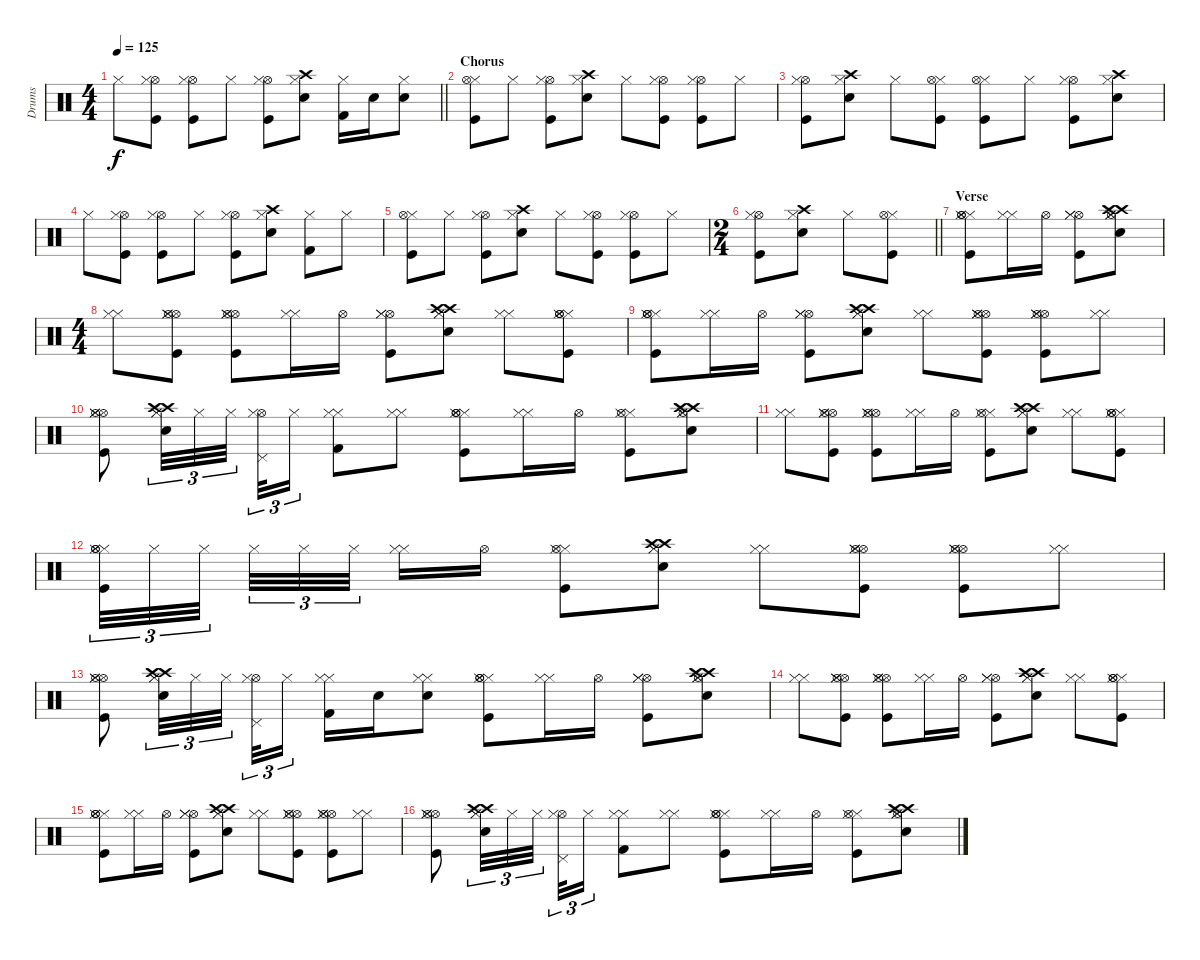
\track ("Drums" "Drums") {instrument percussion}
\staff {score}
\articulation defaults
\ts (4 4)
\tempo 125
\clef neutral
\barLineRight lightlight
\ks c "Hi-Hat (closed)".8{dy f}
("Kick (hit)" "Hi-Hat (open)" "Hi-Hat (closed)").8 ("Hi-Hat (open)" "Kick (hit)" "Hi-Hat (closed)").8 "Hi-Hat (closed)".8 ("Kick (hit)" "Hi-Hat (open)" "Hi-Hat (closed)").8 ("Electric Snare (hit)" "Crash high (hit)" "Hi-Hat (closed)").8 ("Kick (hit) 2" "Hi-Hat (closed)").16 "Electric Snare (hit)".16 ("Electric Snare (hit)" "Hi-Hat (closed)").8 |
\section ("" "Chorus")
("Hi-Hat (closed)" "Hi-Hat (open)" "Kick (hit)").8 "Hi-Hat (closed)".8 ("Hi-Hat (open)" "Kick (hit)" "Hi-Hat (closed)").8 ("Electric Snare (hit)" "Crash high (hit)" "Hi-Hat (closed)").8 "Hi-Hat (closed)".8 ("Kick (hit)" "Hi-Hat (open)" "Hi-Hat (closed)").8 ("Hi-Hat (open)" "Kick (hit)" "Hi-Hat (closed)").8 "Hi-Hat (closed)".8 |
("Hi-Hat (open)" "Kick (hit)" "Hi-Hat (closed)").8 ("Crash high (hit)" "Electric Snare (hit)" "Hi-Hat (closed)").8 "Hi-Hat (closed)".8 ("Kick (hit)" "Hi-Hat (closed)" "Hi-Hat (open)").8 ("Hi-Hat (closed)" "Hi-Hat (open)" "Kick (hit)").8 "Hi-Hat (closed)".8 ("Hi-Hat (open)" "Kick (hit)" "Hi-Hat (closed)").8 ("Crash high (hit)" "Hi-Hat (closed)" "Electric Snare (hit)").8 |
"Hi-Hat (closed)".8 ("Kick (hit)" "Hi-Hat (open)" "Hi-Hat (closed)").8 ("Hi-Hat (open)" "Kick (hit)" "Hi-Hat (closed)").8 "Hi-Hat (closed)".8 ("Kick (hit)" "Hi-Hat (open)" "Hi-Hat (closed)").8 ("Electric Snare (hit)" "Crash high (hit)" "Hi-Hat (closed)").8 ("Kick (hit) 2" "Hi-Hat (closed)").8 "Hi-Hat (closed)".8 |
("Hi-Hat (closed)" "Hi-Hat (open)" "Kick (hit)").8 "Hi-Hat (closed)".8 ("Hi-Hat (open)" "Kick (hit)" "Hi-Hat (closed)").8 ("Electric Snare (hit)" "Crash high (hit)" "Hi-Hat (closed)").8 "Hi-Hat (closed)".8 ("Kick (hit)" "Hi-Hat (open)" "Hi-Hat (closed)").8 ("Hi-Hat (open)" "Kick (hit)" "Hi-Hat (closed)").8 "Hi-Hat (closed)".8 |
\ts (2 4)
\barLineRight lightlight
("Hi-Hat (open)" "Kick (hit)" "Hi-Hat (closed)").8 ("Crash high (hit)" "Electric Snare (hit)" "Hi-Hat (closed)").8 "Hi-Hat (closed)".8 ("Kick (hit)" "Hi-Hat (closed)" "Hi-Hat (open)").8 |
\section ("" "Verse")
("Hi-Hat (closed)" "Hi-Hat (open)" "Kick (hit)" "Hi-Hat (closed)" "Hi-Hat (open)").8 ("Hi-Hat (closed)" "Hi-Hat (closed)").16 "Hi-Hat (open)".16 ("Hi-Hat (open)" "Kick (hit)" "Hi-Hat (closed)" "Hi-Hat (closed)").8 ("Electric Snare (hit)" "Crash high (hit)" "Hi-Hat (closed)" "Crash high (hit)" "Hi-Hat (closed)" "Hi-Hat (open)").8 |
\ts (4 4)
("Hi-Hat (closed)" "Hi-Hat (closed)").8 ("Kick (hit)" "Hi-Hat (open)" "Hi-Hat (closed)" "Hi-Hat (open)" "Hi-Hat (closed)").8 ("Hi-Hat (open)" "Kick (hit)" "Hi-Hat (closed)" "Hi-Hat (open)" "Hi-Hat (closed)").8 ("Hi-Hat (closed)" "Hi-Hat (closed)").16 "Hi-Hat (open)".16 ("Hi-Hat (open)" "Kick (hit)" "Hi-Hat (closed)" "Hi-Hat (closed)").8 ("Crash high (hit)" "Electric Snare (hit)" "Hi-Hat (closed)" "Crash high (hit)" "Hi-Hat (closed)").8 ("Hi-Hat (closed)" "Hi-Hat (closed)").8 ("Kick (hit)" "Hi-Hat (closed)" "Hi-Hat (open)" "Hi-Hat (closed)" "Hi-Hat (open)").8 |
("Hi-Hat (closed)" "Hi-Hat (open)" "Kick (hit)" "Hi-Hat (closed)" "Hi-Hat (open)").8 ("Hi-Hat (closed)" "Hi-Hat (closed)").16 "Hi-Hat (open)".16 ("Hi-Hat (open)" "Kick (hit)" "Hi-Hat (closed)" "Hi-Hat (closed)").8 ("Crash high (hit)" "Hi-Hat (closed)" "Electric Snare (hit)" "Crash high (hit)" "Hi-Hat (closed)").8 ("Hi-Hat (closed)" "Hi-Hat (closed)").8 ("Kick (hit)" "Hi-Hat (open)" "Hi-Hat (closed)" "Hi-Hat (open)" "Hi-Hat (closed)").8 ("Hi-Hat (open)" "Kick (hit)" "Hi-Hat (closed)" "Hi-Hat (open)" "Hi-Hat (closed)").8 ("Hi-Hat (closed)" "Hi-Hat (closed)").8 |
("Kick (hit)" "Hi-Hat (open)" "Hi-Hat (closed)" "Hi-Hat (open)" "Hi-Hat (closed)").8 ("Electric Snare (hit)" "Crash high (hit)" "Hi-Hat (closed)" "Crash high (hit)" "Hi-Hat (closed)").32{tu (3 2)} "Hi-Hat (closed)".32{tu (3 2)} "Hi-Hat (closed)".32{tu (3 2) beam splitsecondary} ("Hi-Hat (open)" "Hi-Hat (closed)" "Pedal Hi-Hat (hit)").32{tu (3 2)} "Hi-Hat (closed)".16{tu (3 2)} ("Kick (hit) 2" "Hi-Hat (closed)" "Hi-Hat (closed)").8 ("Hi-Hat (closed)" "Hi-Hat (closed)").8 ("Hi-Hat (closed)" "Hi-Hat (open)" "Hi-Hat (closed)" "Hi-Hat (open)" "Kick (hit)").8 ("Hi-Hat (closed)" "Hi-Hat (closed)").16 "Hi-Hat (open)".16 ("Hi-Hat (closed)" "Hi-Hat (open)" "Kick (hit)" "Hi-Hat (closed)").8 ("Crash high (hit)" "Hi-Hat (closed)" "Hi-Hat (open)" "Electric Snare (hit)" "Crash high (hit)" "Hi-Hat (closed)").8 |
("Hi-Hat (closed)" "Hi-Hat (closed)").8 ("Hi-Hat (open)" "Hi-Hat (closed)" "Kick (hit)" "Hi-Hat (open)" "Hi-Hat (closed)").8 ("Hi-Hat (open)" "Hi-Hat (closed)" "Hi-Hat (open)" "Kick (hit)" "Hi-Hat (closed)").8 ("Hi-Hat (closed)" "Hi-Hat (closed)").16 "Hi-Hat (open)".16 ("Hi-Hat (closed)" "Hi-Hat (open)" "Kick (hit)" "Hi-Hat (closed)").8 ("Crash high (hit)" "Hi-Hat (closed)" "Crash high (hit)" "Electric Snare (hit)" "Hi-Hat (closed)").8 ("Hi-Hat (closed)" "Hi-Hat (closed)").8 ("Hi-Hat (closed)" "Hi-Hat (open)" "Kick (hit)" "Hi-Hat (closed)" "Hi-Hat (open)").8 |
("Hi-Hat (closed)" "Hi-Hat (open)" "Hi-Hat (closed)" "Hi-Hat (open)" "Kick (hit)").32{tu (3 2)} "Hi-Hat (closed)".32{tu (3 2)} "Hi-Hat (closed)".32{tu (3 2) beam splitsecondary} "Hi-Hat (closed)".32{tu (3 2)} "Hi-Hat (closed)".32{tu (3 2)} "Hi-Hat (closed)".32{tu (3 2) beam splitsecondary} ("Hi-Hat (closed)" "Hi-Hat (closed)").16 "Hi-Hat (open)".16 ("Hi-Hat (closed)" "Hi-Hat (open)" "Kick (hit)" "Hi-Hat (closed)").8 ("Crash high (hit)" "Hi-Hat (closed)" "Crash high (hit)" "Hi-Hat (closed)" "Electric Snare (hit)").8 ("Hi-Hat (closed)" "Hi-Hat (closed)").8 ("Hi-Hat (open)" "Hi-Hat (closed)" "Kick (hit)" "Hi-Hat (open)" "Hi-Hat (closed)").8 ("Hi-Hat (open)" "Hi-Hat (closed)" "Hi-Hat (open)" "Kick (hit)" "Hi-Hat (closed)").8 ("Hi-Hat (closed)" "Hi-Hat (closed)").8 |
("Hi-Hat (open)" "Hi-Hat (closed)" "Kick (hit)" "Hi-Hat (open)" "Hi-Hat (closed)").8 ("Crash high (hit)" "Hi-Hat (closed)" "Electric Snare (hit)" "Crash high (hit)" "Hi-Hat (closed)").32{tu (3 2)} "Hi-Hat (closed)".32{tu (3 2)} "Hi-Hat (closed)".32{tu (3 2) beam splitsecondary} ("Hi-Hat (open)" "Hi-Hat (closed)" "Pedal Hi-Hat (hit)").32{tu (3 2)} "Hi-Hat (closed)".16{tu (3 2)} ("Hi-Hat (closed)" "Kick (hit) 2" "Hi-Hat (closed)").16 "Electric Snare (hit)".16 ("Hi-Hat (closed)" "Electric Snare (hit)" "Hi-Hat (closed)").8 ("Hi-Hat (closed)" "Hi-Hat (open)" "Kick (hit)" "Hi-Hat (closed)" "Hi-Hat (open)").8 ("Hi-Hat (closed)" "Hi-Hat (closed)").16 "Hi-Hat (open)".16 ("Hi-Hat (open)" "Kick (hit)" "Hi-Hat (closed)" "Hi-Hat (closed)").8 ("Electric Snare (hit)" "Crash high (hit)" "Hi-Hat (closed)" "Crash high (hit)" "Hi-Hat (closed)" "Hi-Hat (open)").8 |
("Hi-Hat (closed)" "Hi-Hat (closed)").8 ("Kick (hit)" "Hi-Hat (open)" "Hi-Hat (closed)" "Hi-Hat (open)" "Hi-Hat (closed)").8 ("Hi-Hat (open)" "Kick (hit)" "Hi-Hat (closed)" "Hi-Hat (open)" "Hi-Hat (closed)").8 ("Hi-Hat (closed)" "Hi-Hat (closed)").16 "Hi-Hat (open)".16 ("Hi-Hat (open)" "Kick (hit)" "Hi-Hat (closed)" "Hi-Hat (closed)").8 ("Crash high (hit)" "Electric Snare (hit)" "Hi-Hat (closed)" "Crash high (hit)" "Hi-Hat (closed)").8 ("Hi-Hat (closed)" "Hi-Hat (closed)").8 ("Kick (hit)" "Hi-Hat (closed)" "Hi-Hat (open)" "Hi-Hat (closed)" "Hi-Hat (open)").8 |
("Hi-Hat (closed)" "Hi-Hat (open)" "Kick (hit)" "Hi-Hat (closed)" "Hi-Hat (open)").8 ("Hi-Hat (closed)" "Hi-Hat (closed)").16 "Hi-Hat (open)".16 ("Hi-Hat (open)" "Kick (hit)" "Hi-Hat (closed)" "Hi-Hat (closed)").8 ("Crash high (hit)" "Hi-Hat (closed)" "Electric Snare (hit)" "Crash high (hit)" "Hi-Hat (closed)").8 ("Hi-Hat (closed)" "Hi-Hat (closed)").8 ("Kick (hit)" "Hi-Hat (open)" "Hi-Hat (closed)" "Hi-Hat (open)" "Hi-Hat (closed)").8 ("Hi-Hat (open)" "Kick (hit)" "Hi-Hat (closed)" "Hi-Hat (open)" "Hi-Hat (closed)").8 ("Hi-Hat (closed)" "Hi-Hat (closed)").8 |
("Kick (hit)" "Hi-Hat (open)" "Hi-Hat (closed)" "Hi-Hat (open)" "Hi-Hat (closed)").8 ("Electric Snare (hit)" "Crash high (hit)" "Hi-Hat (closed)" "Crash high (hit)" "Hi-Hat (closed)").32{tu (3 2)} "Hi-Hat (closed)".32{tu (3 2)} "Hi-Hat (closed)".32{tu (3 2) beam splitsecondary} ("Hi-Hat (open)" "Hi-Hat (closed)" "Pedal Hi-Hat (hit)").32{tu (3 2)} "Hi-Hat (closed)".16{tu (3 2)} ("Kick (hit) 2" "Hi-Hat (closed)" "Hi-Hat (closed)").8 ("Hi-Hat (closed)" "Hi-Hat (closed)").8 ("Hi-Hat (closed)" "Hi-Hat (open)" "Hi-Hat (closed)" "Hi-Hat (open)" "Kick (hit)").8 ("Hi-Hat (closed)" "Hi-Hat (closed)").16 "Hi-Hat (open)".16 ("Hi-Hat (closed)" "Hi-Hat (open)" "Kick (hit)" "Hi-Hat (closed)").8 ("Crash high (hit)" "Hi-Hat (closed)" "Hi-Hat (open)" "Electric Snare (hit)" "Crash high (hit)" "Hi-Hat (closed)").8
